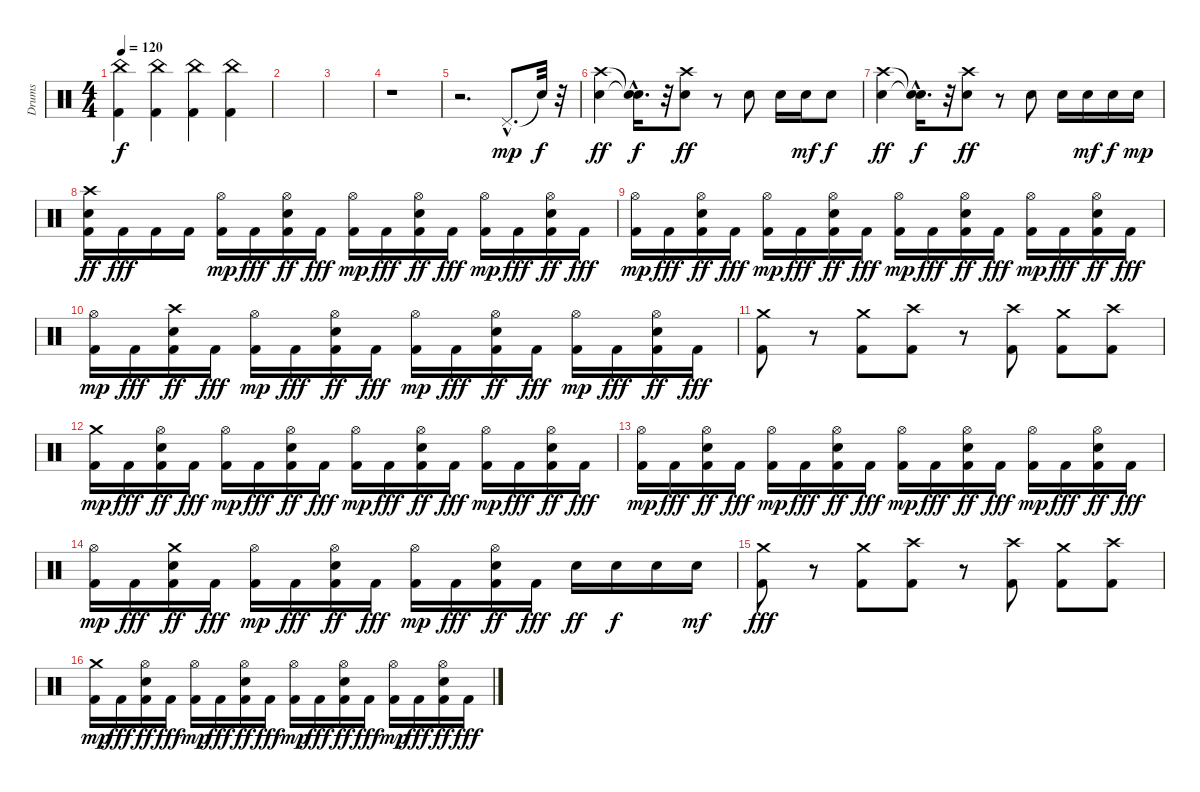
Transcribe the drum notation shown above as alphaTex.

\track ("Drums" "Drums") {instrument percussion}
\staff {score}
\articulation defaults
\ts (4 4)
\tempo 120
\clef neutral
\ks c
("China (hit)" "Kick (hit) 2").4{dy f} ("China (hit)" "Kick (hit) 2").4 ("China (hit)" "Kick (hit) 2").4 ("China (hit)" "Kick (hit) 2").4 |
|
|
r.1 |
r.2{d} "Pedal Hi-Hat (hit)"{hac}.8{d dy mp} "Snare (hit)"{t}.32{dy f} r.32 |
("Crash high (hit)" "Snare (hit) 2").4{dy ff} ("Snare (hit)"{hac t} "Snare (hit)"{hac t}).16{d dy f} r.32 ("Crash high (hit)" "Snare (hit) 2").8{dy ff} r.8 "Snare (hit) 2".8 "Snare (hit) 2".16 "Snare (hit) 2".16{dy mf} "Snare (hit) 2".8{dy f} |
("Crash high (hit)" "Snare (hit) 2").4{dy ff} ("Snare (hit)"{hac t} "Snare (hit)"{hac t}).16{d dy f} r.32 ("Crash high (hit)" "Snare (hit) 2").8{dy ff} r.8 "Snare (hit) 2".8 "Snare (hit) 2".16 "Snare (hit) 2".16{dy mf} "Snare (hit) 2".16{dy f} "Snare (hit) 2".16{dy mp} |
("Kick (hit) 2" "Crash high (hit)" "Snare (hit) 2").16{dy ff} "Kick (hit) 2".16{dy fff} "Kick (hit) 2".16 "Kick (hit) 2".16 ("Kick (hit) 2" "Hi-Hat (open)").16{dy mp} "Kick (hit) 2".16{dy fff} ("Kick (hit) 2" "Hi-Hat (open)" "Snare (hit) 2").16{dy ff} "Kick (hit) 2".16{dy fff} ("Kick (hit) 2" "Hi-Hat (open)").16{dy mp} "Kick (hit) 2".16{dy fff} ("Kick (hit) 2" "Hi-Hat (open)" "Snare (hit) 2").16{dy ff} "Kick (hit) 2".16{dy fff} ("Kick (hit) 2" "Hi-Hat (open)").16{dy mp} "Kick (hit) 2".16{dy fff} ("Kick (hit) 2" "Hi-Hat (open)" "Snare (hit) 2").16{dy ff} "Kick (hit) 2".16{dy fff} |
("Kick (hit) 2" "Hi-Hat (open)").16{dy mp} "Kick (hit) 2".16{dy fff} ("Kick (hit) 2" "Hi-Hat (open)" "Snare (hit) 2").16{dy ff} "Kick (hit) 2".16{dy fff} ("Kick (hit) 2" "Hi-Hat (open)").16{dy mp} "Kick (hit) 2".16{dy fff} ("Kick (hit) 2" "Hi-Hat (open)" "Snare (hit) 2").16{dy ff} "Kick (hit) 2".16{dy fff} ("Kick (hit) 2" "Hi-Hat (open)").16{dy mp} "Kick (hit) 2".16{dy fff} ("Kick (hit) 2" "Hi-Hat (open)" "Snare (hit) 2").16{dy ff} "Kick (hit) 2".16{dy fff} ("Kick (hit) 2" "Hi-Hat (open)").16{dy mp} "Kick (hit) 2".16{dy fff} ("Kick (hit) 2" "Hi-Hat (open)" "Snare (hit) 2").16{dy ff} "Kick (hit) 2".16{dy fff} |
("Kick (hit) 2" "Hi-Hat (open)").16{dy mp} "Kick (hit) 2".16{dy fff} ("Kick (hit) 2" "Crash high (hit)" "Snare (hit) 2").16{dy ff} "Kick (hit) 2".16{dy fff} ("Kick (hit) 2" "Hi-Hat (open)").16{dy mp} "Kick (hit) 2".16{dy fff} ("Kick (hit) 2" "Hi-Hat (open)" "Snare (hit) 2").16{dy ff} "Kick (hit) 2".16{dy fff} ("Kick (hit) 2" "Hi-Hat (open)").16{dy mp} "Kick (hit) 2".16{dy fff} ("Kick (hit) 2" "Hi-Hat (open)" "Snare (hit) 2").16{dy ff} "Kick (hit) 2".16{dy fff} ("Kick (hit) 2" "Hi-Hat (open)").16{dy mp} "Kick (hit) 2".16{dy fff} ("Kick (hit) 2" "Hi-Hat (open)" "Snare (hit) 2").16{dy ff} "Kick (hit) 2".16{dy fff} |
("Crash medium (hit)" "Kick (hit) 2").8 r.8 ("Crash medium (hit)" "Kick (hit) 2").8 ("Crash high (hit)" "Kick (hit) 2").8 r.8 ("Crash high (hit)" "Kick (hit) 2").8 ("Crash medium (hit)" "Kick (hit) 2").8 ("Crash high (hit)" "Kick (hit) 2").8 |
("Kick (hit) 2" "Crash medium (hit)").16{dy mp} "Kick (hit) 2".16{dy fff} ("Kick (hit) 2" "Hi-Hat (open)" "Snare (hit) 2").16{dy ff} "Kick (hit) 2".16{dy fff} ("Kick (hit) 2" "Hi-Hat (open)").16{dy mp} "Kick (hit) 2".16{dy fff} ("Kick (hit) 2" "Hi-Hat (open)" "Snare (hit) 2").16{dy ff} "Kick (hit) 2".16{dy fff} ("Kick (hit) 2" "Hi-Hat (open)").16{dy mp} "Kick (hit) 2".16{dy fff} ("Kick (hit) 2" "Hi-Hat (open)" "Snare (hit) 2").16{dy ff} "Kick (hit) 2".16{dy fff} ("Kick (hit) 2" "Hi-Hat (open)").16{dy mp} "Kick (hit) 2".16{dy fff} ("Kick (hit) 2" "Hi-Hat (open)" "Snare (hit) 2").16{dy ff} "Kick (hit) 2".16{dy fff} |
("Kick (hit) 2" "Hi-Hat (open)").16{dy mp} "Kick (hit) 2".16{dy fff} ("Kick (hit) 2" "Hi-Hat (open)" "Snare (hit) 2").16{dy ff} "Kick (hit) 2".16{dy fff} ("Kick (hit) 2" "Hi-Hat (open)").16{dy mp} "Kick (hit) 2".16{dy fff} ("Kick (hit) 2" "Hi-Hat (open)" "Snare (hit) 2").16{dy ff} "Kick (hit) 2".16{dy fff} ("Kick (hit) 2" "Hi-Hat (open)").16{dy mp} "Kick (hit) 2".16{dy fff} ("Kick (hit) 2" "Hi-Hat (open)" "Snare (hit) 2").16{dy ff} "Kick (hit) 2".16{dy fff} ("Kick (hit) 2" "Hi-Hat (open)").16{dy mp} "Kick (hit) 2".16{dy fff} ("Kick (hit) 2" "Hi-Hat (open)" "Snare (hit) 2").16{dy ff} "Kick (hit) 2".16{dy fff} |
("Kick (hit) 2" "Hi-Hat (open)").16{dy mp} "Kick (hit) 2".16{dy fff} ("Kick (hit) 2" "Crash medium (hit)" "Snare (hit) 2").16{dy ff} "Kick (hit) 2".16{dy fff} ("Kick (hit) 2" "Hi-Hat (open)").16{dy mp} "Kick (hit) 2".16{dy fff} ("Kick (hit) 2" "Hi-Hat (open)" "Snare (hit) 2").16{dy ff} "Kick (hit) 2".16{dy fff} ("Kick (hit) 2" "Hi-Hat (open)").16{dy mp} "Kick (hit) 2".16{dy fff} ("Kick (hit) 2" "Hi-Hat (open)" "Snare (hit) 2").16{dy ff} "Kick (hit) 2".16{dy fff} "Snare (hit) 2".16{dy ff} "Snare (hit) 2".16{dy f} "Snare (hit) 2".16 "Snare (hit) 2".16{dy mf} |
("Crash medium (hit)" "Kick (hit) 2").8{dy fff} r.8 ("Crash medium (hit)" "Kick (hit) 2").8 ("Crash high (hit)" "Kick (hit) 2").8 r.8 ("Crash high (hit)" "Kick (hit) 2").8 ("Crash medium (hit)" "Kick (hit) 2").8 ("Crash high (hit)" "Kick (hit) 2").8 |
("Kick (hit) 2" "Crash medium (hit)").16{dy mp} "Kick (hit) 2".16{dy fff} ("Kick (hit) 2" "Hi-Hat (open)" "Snare (hit) 2").16{dy ff} "Kick (hit) 2".16{dy fff} ("Kick (hit) 2" "Hi-Hat (open)").16{dy mp} "Kick (hit) 2".16{dy fff} ("Kick (hit) 2" "Hi-Hat (open)" "Snare (hit) 2").16{dy ff} "Kick (hit) 2".16{dy fff} ("Kick (hit) 2" "Hi-Hat (open)").16{dy mp} "Kick (hit) 2".16{dy fff} ("Kick (hit) 2" "Hi-Hat (open)" "Snare (hit) 2").16{dy ff} "Kick (hit) 2".16{dy fff} ("Kick (hit) 2" "Hi-Hat (open)").16{dy mp} "Kick (hit) 2".16{dy fff} ("Kick (hit) 2" "Hi-Hat (open)" "Snare (hit) 2").16{dy ff} "Kick (hit) 2".16{dy fff}
